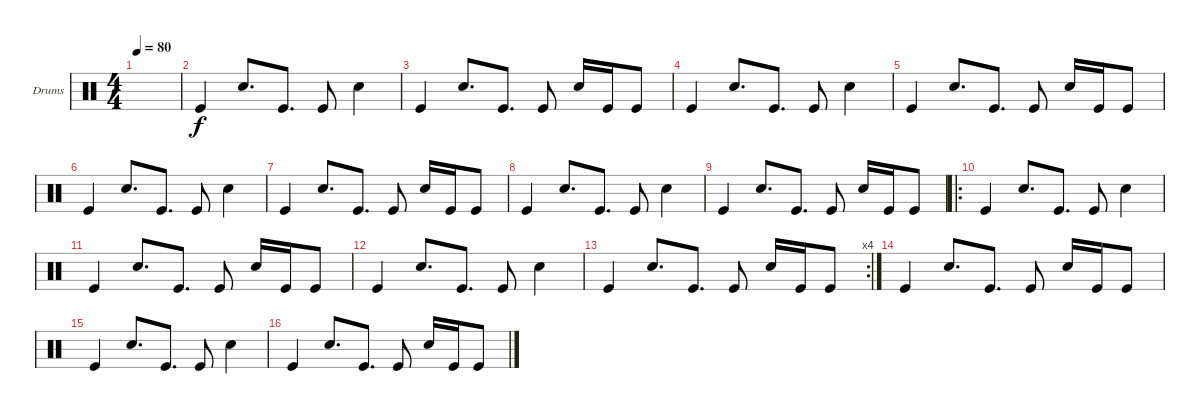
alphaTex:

\defaultSystemsLayout 4
\bracketExtendMode groupsimilarinstruments
\firstSystemTrackNameOrientation horizontal
\otherSystemsTrackNameOrientation horizontal
\track ("Drumkit" "Drums") {instrument percussion}
\staff {score}
\articulation defaults
\ts (4 4)
\tempo 80
\clef neutral
\ks c
|
"Kick (hit)".4 "Snare (hit) 2".8{d} "Kick (hit)".8{d} "Kick (hit)".8 "Snare (hit) 2".4 |
"Kick (hit)".4 "Snare (hit) 2".8{d} "Kick (hit)".8{d} "Kick (hit)".8 "Snare (hit) 2".16 "Kick (hit)".16 "Kick (hit)".8 |
"Kick (hit)".4 "Snare (hit) 2".8{d} "Kick (hit)".8{d} "Kick (hit)".8 "Snare (hit) 2".4 |
"Kick (hit)".4 "Snare (hit) 2".8{d} "Kick (hit)".8{d} "Kick (hit)".8 "Snare (hit) 2".16 "Kick (hit)".16 "Kick (hit)".8 |
"Kick (hit)".4 "Snare (hit) 2".8{d} "Kick (hit)".8{d} "Kick (hit)".8 "Snare (hit) 2".4 |
"Kick (hit)".4 "Snare (hit) 2".8{d} "Kick (hit)".8{d} "Kick (hit)".8 "Snare (hit) 2".16 "Kick (hit)".16 "Kick (hit)".8 |
"Kick (hit)".4 "Snare (hit) 2".8{d} "Kick (hit)".8{d} "Kick (hit)".8 "Snare (hit) 2".4 |
"Kick (hit)".4 "Snare (hit) 2".8{d} "Kick (hit)".8{d} "Kick (hit)".8 "Snare (hit) 2".16 "Kick (hit)".16 "Kick (hit)".8 |
\ro "Kick (hit)".4 "Snare (hit) 2".8{d} "Kick (hit)".8{d} "Kick (hit)".8 "Snare (hit) 2".4
|
"Kick (hit)".4 "Snare (hit) 2".8{d} "Kick (hit)".8{d} "Kick (hit)".8 "Snare (hit) 2".16 "Kick (hit)".16 "Kick (hit)".8 |
"Kick (hit)".4 "Snare (hit) 2".8{d} "Kick (hit)".8{d} "Kick (hit)".8 "Snare (hit) 2".4 |
\rc 4 "Kick (hit)".4 "Snare (hit) 2".8{d} "Kick (hit)".8{d} "Kick (hit)".8 "Snare (hit) 2".16 "Kick (hit)".16 "Kick (hit)".8
|
"Kick (hit)".4 "Snare (hit) 2".8{d} "Kick (hit)".8{d} "Kick (hit)".8 "Snare (hit) 2".16 "Kick (hit)".16 "Kick (hit)".8 |
"Kick (hit)".4 "Snare (hit) 2".8{d} "Kick (hit)".8{d} "Kick (hit)".8 "Snare (hit) 2".4 |
"Kick (hit)".4 "Snare (hit) 2".8{d} "Kick (hit)".8{d} "Kick (hit)".8 "Snare (hit) 2".16 "Kick (hit)".16 "Kick (hit)".8
